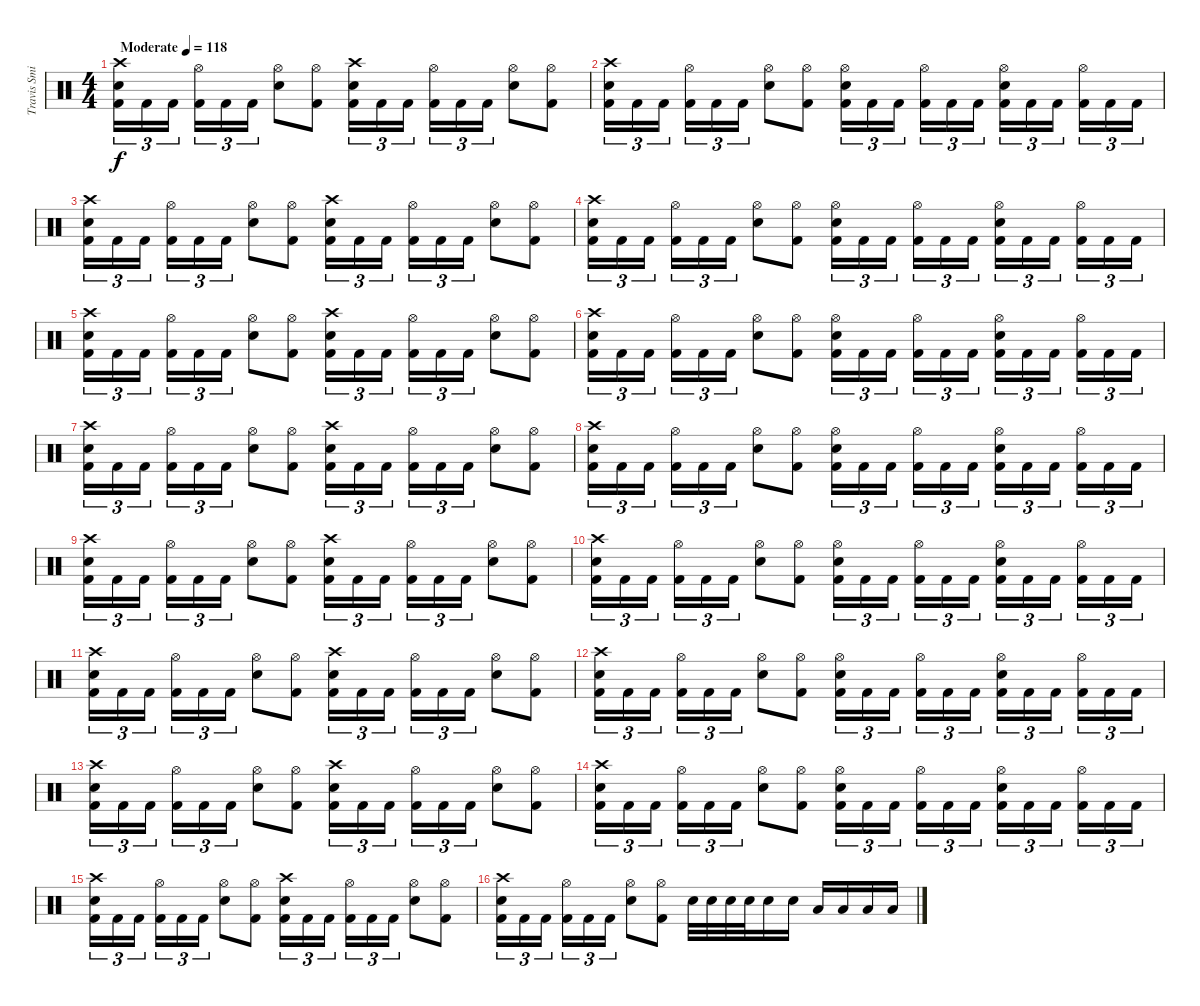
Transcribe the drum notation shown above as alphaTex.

\track ("Travis Smith" "Travis Smi") {instrument percussion}
\staff {score}
\articulation defaults
\ts (4 4)
\tempo (118 "Moderate")
\clef neutral
\ks c
("Kick (hit) 2" "Snare (hit) 2" "Crash high (hit)").16{tu (3 2) dy f} "Kick (hit) 2".16{tu (3 2)} "Kick (hit) 2".16{tu (3 2) beam splitsecondary} ("Kick (hit) 2" "Hi-Hat (open)").16{tu (3 2)} "Kick (hit) 2".16{tu (3 2)} "Kick (hit) 2".16{tu (3 2)} ("Snare (hit) 2" "Hi-Hat (open)").8 ("Kick (hit) 2" "Hi-Hat (open)").8 ("Kick (hit) 2" "Snare (hit) 2" "Crash high (hit)").16{tu (3 2)} "Kick (hit) 2".16{tu (3 2)} "Kick (hit) 2".16{tu (3 2) beam splitsecondary} ("Kick (hit) 2" "Hi-Hat (open)").16{tu (3 2)} "Kick (hit) 2".16{tu (3 2)} "Kick (hit) 2".16{tu (3 2)} ("Snare (hit) 2" "Hi-Hat (open)").8 ("Kick (hit) 2" "Hi-Hat (open)").8 |
("Kick (hit) 2" "Snare (hit) 2" "Crash high (hit)").16{tu (3 2)} "Kick (hit) 2".16{tu (3 2)} "Kick (hit) 2".16{tu (3 2) beam splitsecondary} ("Kick (hit) 2" "Hi-Hat (open)").16{tu (3 2)} "Kick (hit) 2".16{tu (3 2)} "Kick (hit) 2".16{tu (3 2)} ("Snare (hit) 2" "Hi-Hat (open)").8 ("Kick (hit) 2" "Hi-Hat (open)").8 ("Kick (hit) 2" "Snare (hit) 2" "Hi-Hat (open)").16{tu (3 2)} "Kick (hit) 2".16{tu (3 2)} "Kick (hit) 2".16{tu (3 2) beam splitsecondary} ("Kick (hit) 2" "Hi-Hat (open)").16{tu (3 2)} "Kick (hit) 2".16{tu (3 2)} "Kick (hit) 2".16{tu (3 2)} ("Kick (hit) 2" "Snare (hit) 2" "Hi-Hat (open)").16{tu (3 2)} "Kick (hit) 2".16{tu (3 2)} "Kick (hit) 2".16{tu (3 2) beam splitsecondary} ("Kick (hit) 2" "Hi-Hat (open)").16{tu (3 2)} "Kick (hit) 2".16{tu (3 2)} "Kick (hit) 2".16{tu (3 2)} |
("Kick (hit) 2" "Snare (hit) 2" "Crash high (hit)").16{tu (3 2)} "Kick (hit) 2".16{tu (3 2)} "Kick (hit) 2".16{tu (3 2) beam splitsecondary} ("Kick (hit) 2" "Hi-Hat (open)").16{tu (3 2)} "Kick (hit) 2".16{tu (3 2)} "Kick (hit) 2".16{tu (3 2)} ("Snare (hit) 2" "Hi-Hat (open)").8 ("Kick (hit) 2" "Hi-Hat (open)").8 ("Kick (hit) 2" "Snare (hit) 2" "Crash high (hit)").16{tu (3 2)} "Kick (hit) 2".16{tu (3 2)} "Kick (hit) 2".16{tu (3 2) beam splitsecondary} ("Kick (hit) 2" "Hi-Hat (open)").16{tu (3 2)} "Kick (hit) 2".16{tu (3 2)} "Kick (hit) 2".16{tu (3 2)} ("Snare (hit) 2" "Hi-Hat (open)").8 ("Kick (hit) 2" "Hi-Hat (open)").8 |
("Kick (hit) 2" "Snare (hit) 2" "Crash high (hit)").16{tu (3 2)} "Kick (hit) 2".16{tu (3 2)} "Kick (hit) 2".16{tu (3 2) beam splitsecondary} ("Kick (hit) 2" "Hi-Hat (open)").16{tu (3 2)} "Kick (hit) 2".16{tu (3 2)} "Kick (hit) 2".16{tu (3 2)} ("Snare (hit) 2" "Hi-Hat (open)").8 ("Kick (hit) 2" "Hi-Hat (open)").8 ("Kick (hit) 2" "Snare (hit) 2" "Hi-Hat (open)").16{tu (3 2)} "Kick (hit) 2".16{tu (3 2)} "Kick (hit) 2".16{tu (3 2) beam splitsecondary} ("Kick (hit) 2" "Hi-Hat (open)").16{tu (3 2)} "Kick (hit) 2".16{tu (3 2)} "Kick (hit) 2".16{tu (3 2)} ("Kick (hit) 2" "Snare (hit) 2" "Hi-Hat (open)").16{tu (3 2)} "Kick (hit) 2".16{tu (3 2)} "Kick (hit) 2".16{tu (3 2) beam splitsecondary} ("Kick (hit) 2" "Hi-Hat (open)").16{tu (3 2)} "Kick (hit) 2".16{tu (3 2)} "Kick (hit) 2".16{tu (3 2)} |
("Kick (hit) 2" "Snare (hit) 2" "Crash high (hit)").16{tu (3 2)} "Kick (hit) 2".16{tu (3 2)} "Kick (hit) 2".16{tu (3 2) beam splitsecondary} ("Kick (hit) 2" "Hi-Hat (open)").16{tu (3 2)} "Kick (hit) 2".16{tu (3 2)} "Kick (hit) 2".16{tu (3 2)} ("Snare (hit) 2" "Hi-Hat (open)").8 ("Kick (hit) 2" "Hi-Hat (open)").8 ("Kick (hit) 2" "Snare (hit) 2" "Crash high (hit)").16{tu (3 2)} "Kick (hit) 2".16{tu (3 2)} "Kick (hit) 2".16{tu (3 2) beam splitsecondary} ("Kick (hit) 2" "Hi-Hat (open)").16{tu (3 2)} "Kick (hit) 2".16{tu (3 2)} "Kick (hit) 2".16{tu (3 2)} ("Snare (hit) 2" "Hi-Hat (open)").8 ("Kick (hit) 2" "Hi-Hat (open)").8 |
("Kick (hit) 2" "Snare (hit) 2" "Crash high (hit)").16{tu (3 2)} "Kick (hit) 2".16{tu (3 2)} "Kick (hit) 2".16{tu (3 2) beam splitsecondary} ("Kick (hit) 2" "Hi-Hat (open)").16{tu (3 2)} "Kick (hit) 2".16{tu (3 2)} "Kick (hit) 2".16{tu (3 2)} ("Snare (hit) 2" "Hi-Hat (open)").8 ("Kick (hit) 2" "Hi-Hat (open)").8 ("Kick (hit) 2" "Snare (hit) 2" "Hi-Hat (open)").16{tu (3 2)} "Kick (hit) 2".16{tu (3 2)} "Kick (hit) 2".16{tu (3 2) beam splitsecondary} ("Kick (hit) 2" "Hi-Hat (open)").16{tu (3 2)} "Kick (hit) 2".16{tu (3 2)} "Kick (hit) 2".16{tu (3 2)} ("Kick (hit) 2" "Snare (hit) 2" "Hi-Hat (open)").16{tu (3 2)} "Kick (hit) 2".16{tu (3 2)} "Kick (hit) 2".16{tu (3 2) beam splitsecondary} ("Kick (hit) 2" "Hi-Hat (open)").16{tu (3 2)} "Kick (hit) 2".16{tu (3 2)} "Kick (hit) 2".16{tu (3 2)} |
("Kick (hit) 2" "Snare (hit) 2" "Crash high (hit)").16{tu (3 2)} "Kick (hit) 2".16{tu (3 2)} "Kick (hit) 2".16{tu (3 2) beam splitsecondary} ("Kick (hit) 2" "Hi-Hat (open)").16{tu (3 2)} "Kick (hit) 2".16{tu (3 2)} "Kick (hit) 2".16{tu (3 2)} ("Snare (hit) 2" "Hi-Hat (open)").8 ("Kick (hit) 2" "Hi-Hat (open)").8 ("Kick (hit) 2" "Snare (hit) 2" "Crash high (hit)").16{tu (3 2)} "Kick (hit) 2".16{tu (3 2)} "Kick (hit) 2".16{tu (3 2) beam splitsecondary} ("Kick (hit) 2" "Hi-Hat (open)").16{tu (3 2)} "Kick (hit) 2".16{tu (3 2)} "Kick (hit) 2".16{tu (3 2)} ("Snare (hit) 2" "Hi-Hat (open)").8 ("Kick (hit) 2" "Hi-Hat (open)").8 |
("Kick (hit) 2" "Snare (hit) 2" "Crash high (hit)").16{tu (3 2)} "Kick (hit) 2".16{tu (3 2)} "Kick (hit) 2".16{tu (3 2) beam splitsecondary} ("Kick (hit) 2" "Hi-Hat (open)").16{tu (3 2)} "Kick (hit) 2".16{tu (3 2)} "Kick (hit) 2".16{tu (3 2)} ("Snare (hit) 2" "Hi-Hat (open)").8 ("Kick (hit) 2" "Hi-Hat (open)").8 ("Kick (hit) 2" "Snare (hit) 2" "Hi-Hat (open)").16{tu (3 2)} "Kick (hit) 2".16{tu (3 2)} "Kick (hit) 2".16{tu (3 2) beam splitsecondary} ("Kick (hit) 2" "Hi-Hat (open)").16{tu (3 2)} "Kick (hit) 2".16{tu (3 2)} "Kick (hit) 2".16{tu (3 2)} ("Kick (hit) 2" "Snare (hit) 2" "Hi-Hat (open)").16{tu (3 2)} "Kick (hit) 2".16{tu (3 2)} "Kick (hit) 2".16{tu (3 2) beam splitsecondary} ("Kick (hit) 2" "Hi-Hat (open)").16{tu (3 2)} "Kick (hit) 2".16{tu (3 2)} "Kick (hit) 2".16{tu (3 2)} |
("Kick (hit) 2" "Snare (hit) 2" "Crash high (hit)").16{tu (3 2)} "Kick (hit) 2".16{tu (3 2)} "Kick (hit) 2".16{tu (3 2) beam splitsecondary} ("Kick (hit) 2" "Hi-Hat (open)").16{tu (3 2)} "Kick (hit) 2".16{tu (3 2)} "Kick (hit) 2".16{tu (3 2)} ("Snare (hit) 2" "Hi-Hat (open)").8 ("Kick (hit) 2" "Hi-Hat (open)").8 ("Kick (hit) 2" "Snare (hit) 2" "Crash high (hit)").16{tu (3 2)} "Kick (hit) 2".16{tu (3 2)} "Kick (hit) 2".16{tu (3 2) beam splitsecondary} ("Kick (hit) 2" "Hi-Hat (open)").16{tu (3 2)} "Kick (hit) 2".16{tu (3 2)} "Kick (hit) 2".16{tu (3 2)} ("Snare (hit) 2" "Hi-Hat (open)").8 ("Kick (hit) 2" "Hi-Hat (open)").8 |
("Kick (hit) 2" "Snare (hit) 2" "Crash high (hit)").16{tu (3 2)} "Kick (hit) 2".16{tu (3 2)} "Kick (hit) 2".16{tu (3 2) beam splitsecondary} ("Kick (hit) 2" "Hi-Hat (open)").16{tu (3 2)} "Kick (hit) 2".16{tu (3 2)} "Kick (hit) 2".16{tu (3 2)} ("Snare (hit) 2" "Hi-Hat (open)").8 ("Kick (hit) 2" "Hi-Hat (open)").8 ("Kick (hit) 2" "Snare (hit) 2" "Hi-Hat (open)").16{tu (3 2)} "Kick (hit) 2".16{tu (3 2)} "Kick (hit) 2".16{tu (3 2) beam splitsecondary} ("Kick (hit) 2" "Hi-Hat (open)").16{tu (3 2)} "Kick (hit) 2".16{tu (3 2)} "Kick (hit) 2".16{tu (3 2)} ("Kick (hit) 2" "Snare (hit) 2" "Hi-Hat (open)").16{tu (3 2)} "Kick (hit) 2".16{tu (3 2)} "Kick (hit) 2".16{tu (3 2) beam splitsecondary} ("Kick (hit) 2" "Hi-Hat (open)").16{tu (3 2)} "Kick (hit) 2".16{tu (3 2)} "Kick (hit) 2".16{tu (3 2)} |
("Kick (hit) 2" "Snare (hit) 2" "Crash high (hit)").16{tu (3 2)} "Kick (hit) 2".16{tu (3 2)} "Kick (hit) 2".16{tu (3 2) beam splitsecondary} ("Kick (hit) 2" "Hi-Hat (open)").16{tu (3 2)} "Kick (hit) 2".16{tu (3 2)} "Kick (hit) 2".16{tu (3 2)} ("Snare (hit) 2" "Hi-Hat (open)").8 ("Kick (hit) 2" "Hi-Hat (open)").8 ("Kick (hit) 2" "Snare (hit) 2" "Crash high (hit)").16{tu (3 2)} "Kick (hit) 2".16{tu (3 2)} "Kick (hit) 2".16{tu (3 2) beam splitsecondary} ("Kick (hit) 2" "Hi-Hat (open)").16{tu (3 2)} "Kick (hit) 2".16{tu (3 2)} "Kick (hit) 2".16{tu (3 2)} ("Snare (hit) 2" "Hi-Hat (open)").8 ("Kick (hit) 2" "Hi-Hat (open)").8 |
("Kick (hit) 2" "Snare (hit) 2" "Crash high (hit)").16{tu (3 2)} "Kick (hit) 2".16{tu (3 2)} "Kick (hit) 2".16{tu (3 2) beam splitsecondary} ("Kick (hit) 2" "Hi-Hat (open)").16{tu (3 2)} "Kick (hit) 2".16{tu (3 2)} "Kick (hit) 2".16{tu (3 2)} ("Snare (hit) 2" "Hi-Hat (open)").8 ("Kick (hit) 2" "Hi-Hat (open)").8 ("Kick (hit) 2" "Snare (hit) 2" "Hi-Hat (open)").16{tu (3 2)} "Kick (hit) 2".16{tu (3 2)} "Kick (hit) 2".16{tu (3 2) beam splitsecondary} ("Kick (hit) 2" "Hi-Hat (open)").16{tu (3 2)} "Kick (hit) 2".16{tu (3 2)} "Kick (hit) 2".16{tu (3 2)} ("Kick (hit) 2" "Snare (hit) 2" "Hi-Hat (open)").16{tu (3 2)} "Kick (hit) 2".16{tu (3 2)} "Kick (hit) 2".16{tu (3 2) beam splitsecondary} ("Kick (hit) 2" "Hi-Hat (open)").16{tu (3 2)} "Kick (hit) 2".16{tu (3 2)} "Kick (hit) 2".16{tu (3 2)} |
("Kick (hit) 2" "Snare (hit) 2" "Crash high (hit)").16{tu (3 2)} "Kick (hit) 2".16{tu (3 2)} "Kick (hit) 2".16{tu (3 2) beam splitsecondary} ("Kick (hit) 2" "Hi-Hat (open)").16{tu (3 2)} "Kick (hit) 2".16{tu (3 2)} "Kick (hit) 2".16{tu (3 2)} ("Snare (hit) 2" "Hi-Hat (open)").8 ("Kick (hit) 2" "Hi-Hat (open)").8 ("Kick (hit) 2" "Snare (hit) 2" "Crash high (hit)").16{tu (3 2)} "Kick (hit) 2".16{tu (3 2)} "Kick (hit) 2".16{tu (3 2) beam splitsecondary} ("Kick (hit) 2" "Hi-Hat (open)").16{tu (3 2)} "Kick (hit) 2".16{tu (3 2)} "Kick (hit) 2".16{tu (3 2)} ("Snare (hit) 2" "Hi-Hat (open)").8 ("Kick (hit) 2" "Hi-Hat (open)").8 |
("Kick (hit) 2" "Snare (hit) 2" "Crash high (hit)").16{tu (3 2)} "Kick (hit) 2".16{tu (3 2)} "Kick (hit) 2".16{tu (3 2) beam splitsecondary} ("Kick (hit) 2" "Hi-Hat (open)").16{tu (3 2)} "Kick (hit) 2".16{tu (3 2)} "Kick (hit) 2".16{tu (3 2)} ("Snare (hit) 2" "Hi-Hat (open)").8 ("Kick (hit) 2" "Hi-Hat (open)").8 ("Kick (hit) 2" "Snare (hit) 2" "Hi-Hat (open)").16{tu (3 2)} "Kick (hit) 2".16{tu (3 2)} "Kick (hit) 2".16{tu (3 2) beam splitsecondary} ("Kick (hit) 2" "Hi-Hat (open)").16{tu (3 2)} "Kick (hit) 2".16{tu (3 2)} "Kick (hit) 2".16{tu (3 2)} ("Kick (hit) 2" "Snare (hit) 2" "Hi-Hat (open)").16{tu (3 2)} "Kick (hit) 2".16{tu (3 2)} "Kick (hit) 2".16{tu (3 2) beam splitsecondary} ("Kick (hit) 2" "Hi-Hat (open)").16{tu (3 2)} "Kick (hit) 2".16{tu (3 2)} "Kick (hit) 2".16{tu (3 2)} |
("Kick (hit) 2" "Snare (hit) 2" "Crash high (hit)").16{tu (3 2)} "Kick (hit) 2".16{tu (3 2)} "Kick (hit) 2".16{tu (3 2) beam splitsecondary} ("Kick (hit) 2" "Hi-Hat (open)").16{tu (3 2)} "Kick (hit) 2".16{tu (3 2)} "Kick (hit) 2".16{tu (3 2)} ("Snare (hit) 2" "Hi-Hat (open)").8 ("Kick (hit) 2" "Hi-Hat (open)").8 ("Kick (hit) 2" "Snare (hit) 2" "Crash high (hit)").16{tu (3 2)} "Kick (hit) 2".16{tu (3 2)} "Kick (hit) 2".16{tu (3 2) beam splitsecondary} ("Kick (hit) 2" "Hi-Hat (open)").16{tu (3 2)} "Kick (hit) 2".16{tu (3 2)} "Kick (hit) 2".16{tu (3 2)} ("Snare (hit) 2" "Hi-Hat (open)").8 ("Kick (hit) 2" "Hi-Hat (open)").8 |
("Kick (hit) 2" "Snare (hit) 2" "Crash high (hit)").16{tu (3 2)} "Kick (hit) 2".16{tu (3 2)} "Kick (hit) 2".16{tu (3 2) beam splitsecondary} ("Kick (hit) 2" "Hi-Hat (open)").16{tu (3 2)} "Kick (hit) 2".16{tu (3 2)} "Kick (hit) 2".16{tu (3 2)} ("Snare (hit) 2" "Hi-Hat (open)").8 ("Kick (hit) 2" "Hi-Hat (open)").8 "Snare (hit) 2".32 "Snare (hit) 2".32 "Snare (hit) 2".32 "Snare (hit) 2".32 "Snare (hit) 2".16 "Snare (hit) 2".16 "Low Tom (hit)".16 "Low Tom (hit)".16 "Low Tom (hit)".16 "Low Tom (hit)".16
